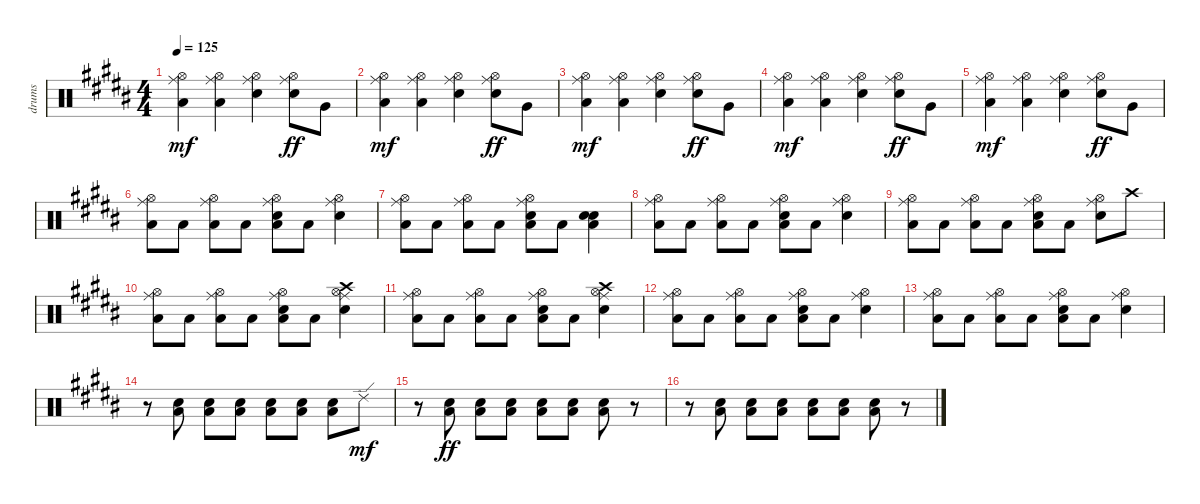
\track ("drums" "drums") {instrument percussion}
\staff {score}
\articulation defaults
\ts (4 4)
\tempo 125
\clef neutral
\ks b
("Ride (middle)" "Hi-Hat (open)" "Low Floor Tom (hit)").4{dy mf} ("Ride (middle)" "Hi-Hat (open)" "Low Floor Tom (hit)").4 ("Ride (middle)" "Hi-Hat (open)" "Electric Snare (hit)").4 ("Ride (middle)" "Hi-Hat (open)" "Electric Snare (hit)").8{dy ff} "Very Low Tom (hit)".8 |
("Ride (middle)" "Hi-Hat (open)" "Low Floor Tom (hit)").4{dy mf} ("Ride (middle)" "Hi-Hat (open)" "Low Floor Tom (hit)").4 ("Ride (middle)" "Hi-Hat (open)" "Electric Snare (hit)").4 ("Ride (middle)" "Hi-Hat (open)" "Electric Snare (hit)").8{dy ff} "Very Low Tom (hit)".8 |
("Ride (middle)" "Hi-Hat (open)" "Low Floor Tom (hit)").4{dy mf} ("Ride (middle)" "Hi-Hat (open)" "Low Floor Tom (hit)").4 ("Ride (middle)" "Hi-Hat (open)" "Electric Snare (hit)").4 ("Ride (middle)" "Hi-Hat (open)" "Electric Snare (hit)").8{dy ff} "Very Low Tom (hit)".8 |
("Ride (middle)" "Hi-Hat (open)" "Low Floor Tom (hit)").4{dy mf} ("Ride (middle)" "Hi-Hat (open)" "Low Floor Tom (hit)").4 ("Ride (middle)" "Hi-Hat (open)" "Electric Snare (hit)").4 ("Ride (middle)" "Hi-Hat (open)" "Electric Snare (hit)").8{dy ff} "Very Low Tom (hit)".8 |
("Ride (middle)" "Hi-Hat (open)" "Low Floor Tom (hit)").4{dy mf} ("Ride (middle)" "Hi-Hat (open)" "Low Floor Tom (hit)").4 ("Ride (middle)" "Hi-Hat (open)" "Electric Snare (hit)").4 ("Ride (middle)" "Hi-Hat (open)" "Electric Snare (hit)").8{dy ff} "Very Low Tom (hit)".8 |
("Ride (middle)" "Hi-Hat (open)" "Low Floor Tom (hit)").8 "Low Floor Tom (hit)".8 ("Ride (middle)" "Hi-Hat (open)" "Low Floor Tom (hit)").8 "Low Floor Tom (hit)".8 ("Ride (middle)" "Hi-Hat (open)" "Electric Snare (hit)" "Low Floor Tom (hit)").8 "Low Floor Tom (hit)".8 ("Ride (middle)" "Hi-Hat (open)" "Electric Snare (hit)").4 |
("Ride (middle)" "Hi-Hat (open)" "Low Floor Tom (hit)").8 "Low Floor Tom (hit)".8 ("Ride (middle)" "Hi-Hat (open)" "Low Floor Tom (hit)").8 "Low Floor Tom (hit)".8 ("Ride (middle)" "Hi-Hat (open)" "Electric Snare (hit)" "Low Floor Tom (hit)").8 "Low Floor Tom (hit)".8 ("Snare (hit) 2" "Electric Snare (hit)" "Low Floor Tom (hit)").4 |
("Ride (middle)" "Hi-Hat (open)" "Low Floor Tom (hit)").8 "Low Floor Tom (hit)".8 ("Ride (middle)" "Hi-Hat (open)" "Low Floor Tom (hit)").8 "Low Floor Tom (hit)".8 ("Ride (middle)" "Hi-Hat (open)" "Electric Snare (hit)" "Low Floor Tom (hit)").8 "Low Floor Tom (hit)".8 ("Ride (middle)" "Hi-Hat (open)" "Electric Snare (hit)").4 |
("Ride (middle)" "Hi-Hat (open)" "Low Floor Tom (hit)").8 "Low Floor Tom (hit)".8 ("Ride (middle)" "Hi-Hat (open)" "Low Floor Tom (hit)").8 "Low Floor Tom (hit)".8 ("Ride (middle)" "Hi-Hat (open)" "Electric Snare (hit)" "Low Floor Tom (hit)").8 "Low Floor Tom (hit)".8 ("Ride (middle)" "Hi-Hat (open)" "Electric Snare (hit)").8 "Crash high (hit)".8 |
("Ride (middle)" "Hi-Hat (open)" "Low Floor Tom (hit)").8 "Low Floor Tom (hit)".8 ("Ride (middle)" "Hi-Hat (open)" "Low Floor Tom (hit)").8 "Low Floor Tom (hit)".8 ("Ride (middle)" "Hi-Hat (open)" "Electric Snare (hit)" "Low Floor Tom (hit)").8 "Low Floor Tom (hit)".8 ("Ride (middle)" "Hi-Hat (open)" "Crash high (hit)" "Electric Snare (hit)").4 |
("Ride (middle)" "Hi-Hat (open)" "Low Floor Tom (hit)").8 "Low Floor Tom (hit)".8 ("Ride (middle)" "Hi-Hat (open)" "Low Floor Tom (hit)").8 "Low Floor Tom (hit)".8 ("Ride (middle)" "Hi-Hat (open)" "Electric Snare (hit)" "Low Floor Tom (hit)").8 "Low Floor Tom (hit)".8 ("Ride (middle)" "Hi-Hat (open)" "Crash high (hit)" "Electric Snare (hit)").4 |
("Ride (middle)" "Hi-Hat (open)" "Low Floor Tom (hit)").8 "Low Floor Tom (hit)".8 ("Ride (middle)" "Hi-Hat (open)" "Low Floor Tom (hit)").8 "Low Floor Tom (hit)".8 ("Ride (middle)" "Hi-Hat (open)" "Electric Snare (hit)" "Low Floor Tom (hit)").8 "Low Floor Tom (hit)".8 ("Ride (middle)" "Hi-Hat (open)" "Electric Snare (hit)").4 |
("Ride (middle)" "Hi-Hat (open)" "Low Floor Tom (hit)").8 "Low Floor Tom (hit)".8 ("Ride (middle)" "Hi-Hat (open)" "Low Floor Tom (hit)").8 "Low Floor Tom (hit)".8 ("Ride (middle)" "Hi-Hat (open)" "Electric Snare (hit)" "Low Floor Tom (hit)").8 "Low Floor Tom (hit)".8 ("Ride (middle)" "Hi-Hat (open)" "Electric Snare (hit)").4 |
r.8 ("Electric Snare (hit)" "Low Floor Tom (hit)").8 ("Electric Snare (hit)" "Low Floor Tom (hit)").8 ("Electric Snare (hit)" "Low Floor Tom (hit)").8 ("Electric Snare (hit)" "Low Floor Tom (hit)").8 ("Electric Snare (hit)" "Low Floor Tom (hit)").8 ("Electric Snare (hit)" "Low Floor Tom (hit)").8 "Ride (edge) 2".8{dy mf} |
r.8 ("Electric Snare (hit)" "Low Floor Tom (hit)").8{dy ff} ("Electric Snare (hit)" "Low Floor Tom (hit)").8 ("Electric Snare (hit)" "Low Floor Tom (hit)").8 ("Electric Snare (hit)" "Low Floor Tom (hit)").8 ("Electric Snare (hit)" "Low Floor Tom (hit)").8 ("Electric Snare (hit)" "Low Floor Tom (hit)").8 r.8 |
r.8 ("Electric Snare (hit)" "Low Floor Tom (hit)").8 ("Electric Snare (hit)" "Low Floor Tom (hit)").8 ("Electric Snare (hit)" "Low Floor Tom (hit)").8 ("Electric Snare (hit)" "Low Floor Tom (hit)").8 ("Electric Snare (hit)" "Low Floor Tom (hit)").8 ("Electric Snare (hit)" "Low Floor Tom (hit)").8 r.8
